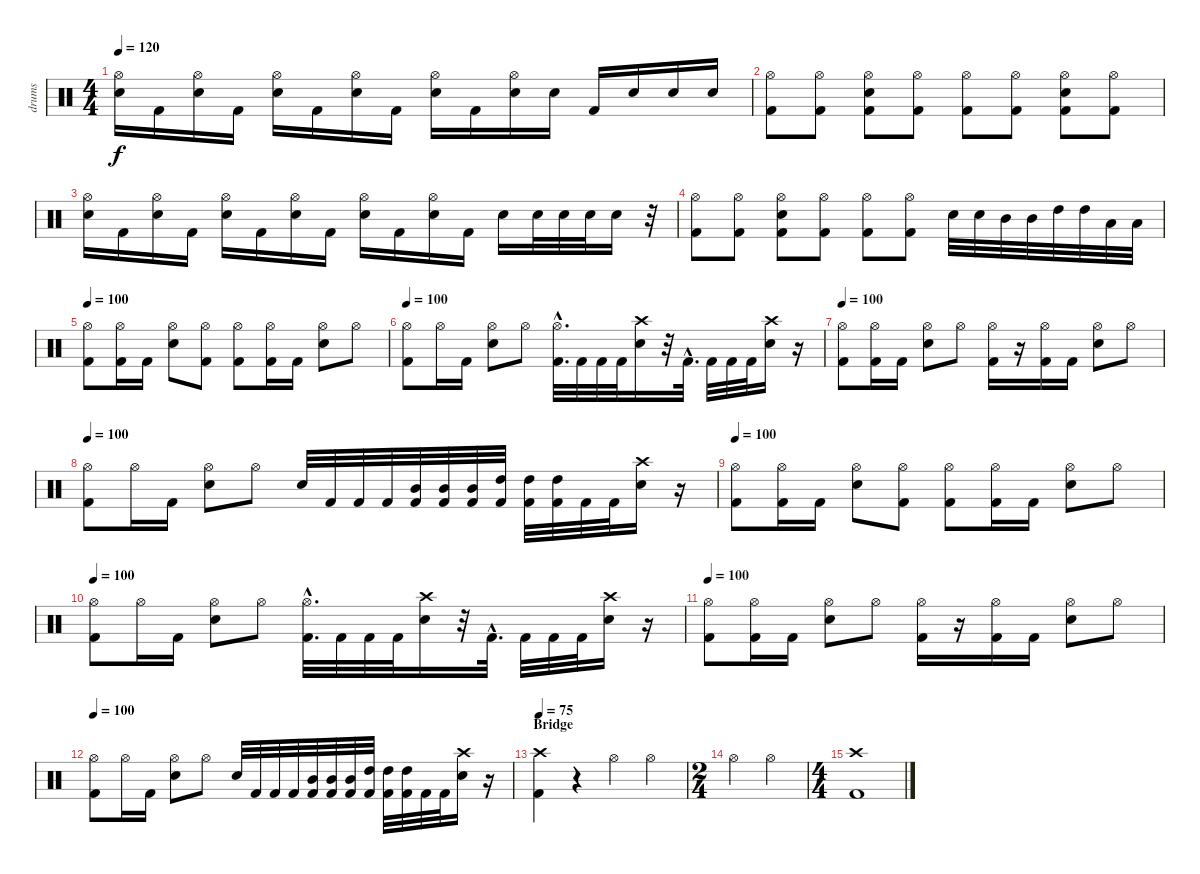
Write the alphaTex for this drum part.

\track ("drums" "drums") {instrument percussion}
\staff {score}
\articulation defaults
\ts (4 4)
\tempo 120
\clef neutral
\ks c
("Electric Snare (hit)" "Hi-Hat (open)").16{dy f} "Kick (hit) 2".16 ("Electric Snare (hit)" "Hi-Hat (open)").16 "Kick (hit) 2".16 ("Electric Snare (hit)" "Hi-Hat (open)").16 "Kick (hit) 2".16 ("Electric Snare (hit)" "Hi-Hat (open)").16 "Kick (hit) 2".16 ("Electric Snare (hit)" "Hi-Hat (open)").16 "Kick (hit) 2".16 ("Electric Snare (hit)" "Hi-Hat (open)").16 "Electric Snare (hit)".16 "Kick (hit) 2".16 "Electric Snare (hit)".16 "Electric Snare (hit)".16 "Electric Snare (hit)".16 |
("Kick (hit) 2" "Hi-Hat (open)").8 ("Kick (hit) 2" "Hi-Hat (open)").8 ("Kick (hit) 2" "Electric Snare (hit)" "Hi-Hat (open)").8 ("Kick (hit) 2" "Hi-Hat (open)").8 ("Kick (hit) 2" "Hi-Hat (open)").8 ("Kick (hit) 2" "Hi-Hat (open)").8 ("Kick (hit) 2" "Electric Snare (hit)" "Hi-Hat (open)").8 ("Kick (hit) 2" "Hi-Hat (open)").8 |
("Electric Snare (hit)" "Hi-Hat (open)").16 "Kick (hit) 2".16 ("Electric Snare (hit)" "Hi-Hat (open)").16 "Kick (hit) 2".16 ("Electric Snare (hit)" "Hi-Hat (open)").16 "Kick (hit) 2".16 ("Electric Snare (hit)" "Hi-Hat (open)").16 "Kick (hit) 2".16 ("Electric Snare (hit)" "Hi-Hat (open)").16 "Kick (hit) 2".16 ("Electric Snare (hit)" "Hi-Hat (open)").16 "Kick (hit) 2".16 "Electric Snare (hit)".16 "Electric Snare (hit)".32 "Electric Snare (hit)".32 "Electric Snare (hit)".32 "Electric Snare (hit)".16 r.32 |
("Kick (hit) 2" "Hi-Hat (open)").8 ("Kick (hit) 2" "Hi-Hat (open)").8 ("Kick (hit) 2" "Electric Snare (hit)" "Hi-Hat (open)").8 ("Kick (hit) 2" "Hi-Hat (open)").8 ("Kick (hit) 2" "Hi-Hat (open)").8 ("Kick (hit) 2" "Hi-Hat (open)").8 "Electric Snare (hit)".32 "Electric Snare (hit)".32 "Mid Tom (hit)".32 "Mid Tom (hit)".32 "High Tom (hit)".32 "High Tom (hit)".32 "Low Floor Tom (hit)".32 "Low Floor Tom (hit)".32 |
\tempo 100
("Kick (hit) 2" "Hi-Hat (open)").8 ("Kick (hit) 2" "Hi-Hat (open)").16 "Kick (hit) 2".16 ("Electric Snare (hit)" "Hi-Hat (open)").8 ("Kick (hit) 2" "Hi-Hat (open)").8 ("Kick (hit) 2" "Hi-Hat (open)").8 ("Kick (hit) 2" "Hi-Hat (open)").16 "Kick (hit) 2".16 ("Electric Snare (hit)" "Hi-Hat (open)").8 "Hi-Hat (open)".8 |
\tempo 100
("Kick (hit) 2" "Hi-Hat (open)").8 "Hi-Hat (open)".16 "Kick (hit) 2".16 ("Electric Snare (hit)" "Hi-Hat (open)").8 "Hi-Hat (open)".8 ("Kick (hit) 2"{hac} "Hi-Hat (open)"{hac}).32{d} "Kick (hit) 2".32 "Kick (hit) 2".32 "Kick (hit) 2".32 ("Electric Snare (hit)" "Crash high (hit)").16 r.32 "Kick (hit) 2"{hac}.32{d} "Kick (hit) 2".32 "Kick (hit) 2".32 "Kick (hit) 2".32 ("Electric Snare (hit)" "Crash high (hit)").16 r.16 |
\tempo 100
("Kick (hit) 2" "Hi-Hat (open)").8 ("Kick (hit) 2" "Hi-Hat (open)").16 "Kick (hit) 2".16 ("Electric Snare (hit)" "Hi-Hat (open)").8 "Hi-Hat (open)".8 ("Kick (hit) 2" "Hi-Hat (open)").16 r.16 ("Kick (hit) 2" "Hi-Hat (open)").16 "Kick (hit) 2".16 ("Electric Snare (hit)" "Hi-Hat (open)").8 "Hi-Hat (open)".8 |
\tempo 100
("Kick (hit) 2" "Hi-Hat (open)").8 "Hi-Hat (open)".16 "Kick (hit) 2".16 ("Electric Snare (hit)" "Hi-Hat (open)").8 "Hi-Hat (open)".8 "Electric Snare (hit)".32 "Kick (hit) 2".32 "Kick (hit) 2".32 "Kick (hit) 2".32 ("Kick (hit) 2" "Mid Tom (hit)").32 ("Kick (hit) 2" "Mid Tom (hit)").32 ("Kick (hit) 2" "Mid Tom (hit)").32 ("Kick (hit) 2" "High Tom (hit)").32 ("Kick (hit) 2" "High Tom (hit)").32 ("Kick (hit) 2" "High Tom (hit)").32 "Kick (hit) 2".32 "Kick (hit) 2".32 ("Electric Snare (hit)" "Crash high (hit)").16 r.16 |
\tempo 100
("Kick (hit) 2" "Hi-Hat (open)").8 ("Kick (hit) 2" "Hi-Hat (open)").16 "Kick (hit) 2".16 ("Electric Snare (hit)" "Hi-Hat (open)").8 ("Kick (hit) 2" "Hi-Hat (open)").8 ("Kick (hit) 2" "Hi-Hat (open)").8 ("Kick (hit) 2" "Hi-Hat (open)").16 "Kick (hit) 2".16 ("Electric Snare (hit)" "Hi-Hat (open)").8 "Hi-Hat (open)".8 |
\tempo 100
("Kick (hit) 2" "Hi-Hat (open)").8 "Hi-Hat (open)".16 "Kick (hit) 2".16 ("Electric Snare (hit)" "Hi-Hat (open)").8 "Hi-Hat (open)".8 ("Kick (hit) 2"{hac} "Hi-Hat (open)"{hac}).32{d} "Kick (hit) 2".32 "Kick (hit) 2".32 "Kick (hit) 2".32 ("Electric Snare (hit)" "Crash high (hit)").16 r.32 "Kick (hit) 2"{hac}.32{d} "Kick (hit) 2".32 "Kick (hit) 2".32 "Kick (hit) 2".32 ("Electric Snare (hit)" "Crash high (hit)").16 r.16 |
\tempo 100
("Kick (hit) 2" "Hi-Hat (open)").8 ("Kick (hit) 2" "Hi-Hat (open)").16 "Kick (hit) 2".16 ("Electric Snare (hit)" "Hi-Hat (open)").8 "Hi-Hat (open)".8 ("Kick (hit) 2" "Hi-Hat (open)").16 r.16 ("Kick (hit) 2" "Hi-Hat (open)").16 "Kick (hit) 2".16 ("Electric Snare (hit)" "Hi-Hat (open)").8 "Hi-Hat (open)".8 |
\tempo 100
("Kick (hit) 2" "Hi-Hat (open)").8 "Hi-Hat (open)".16 "Kick (hit) 2".16 ("Electric Snare (hit)" "Hi-Hat (open)").8 "Hi-Hat (open)".8 "Electric Snare (hit)".32 "Kick (hit) 2".32 "Kick (hit) 2".32 "Kick (hit) 2".32 ("Kick (hit) 2" "Mid Tom (hit)").32 ("Kick (hit) 2" "Mid Tom (hit)").32 ("Kick (hit) 2" "Mid Tom (hit)").32 ("Kick (hit) 2" "High Tom (hit)").32 ("Kick (hit) 2" "High Tom (hit)").32 ("Kick (hit) 2" "High Tom (hit)").32 "Kick (hit) 2".32 "Kick (hit) 2".32 ("Electric Snare (hit)" "Crash high (hit)").16 r.16 |
\section ("" "Bridge")
\tempo 75
("Kick (hit) 2" "Crash high (hit)").4 r.4 "Hi-Hat (open)".4 "Hi-Hat (open)".4 |
\ts (2 4)
"Hi-Hat (open)".4 "Hi-Hat (open)".4 |
\ts (4 4)
("Kick (hit) 2" "Crash high (hit)").1
